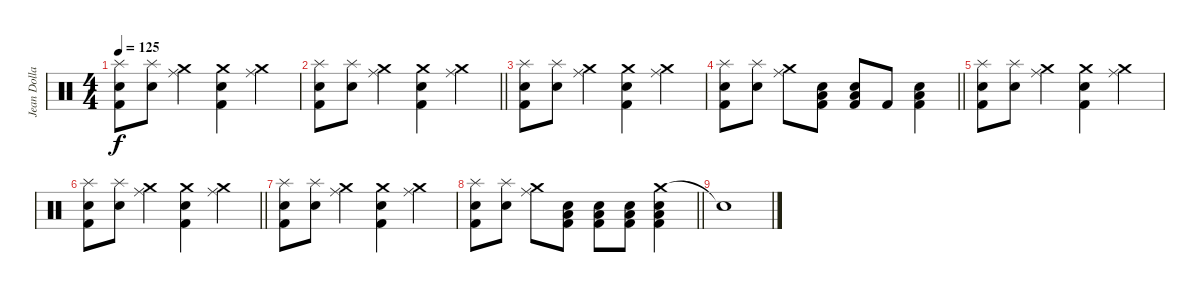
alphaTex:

\track ("Jean Dollabella" "Jean Dolla") {instrument percussion}
\staff {score}
\articulation defaults
\ts (4 4)
\tempo 125
\clef neutral
\ks c
("Splash (hit)" "Snare (hit) 2" "Kick (hit) 2").8{dy f} ("Splash (hit)" "Snare (hit) 2").8 ("Crash medium (hit)" "Ride (middle)").4 ("Crash medium (hit)" "Snare (hit) 2" "Kick (hit) 2").4 ("Crash medium (hit)" "Ride (middle)").4 |
\barLineRight lightlight
("Splash (hit)" "Snare (hit) 2" "Kick (hit) 2").8 ("Splash (hit)" "Snare (hit) 2").8 ("Crash medium (hit)" "Ride (middle)").4 ("Crash medium (hit)" "Snare (hit) 2" "Kick (hit) 2").4 ("Crash medium (hit)" "Ride (middle)").4 |
("Splash (hit)" "Snare (hit) 2" "Kick (hit) 2").8 ("Splash (hit)" "Snare (hit) 2").8 ("Crash medium (hit)" "Ride (middle)").4 ("Crash medium (hit)" "Snare (hit) 2" "Kick (hit) 2").4 ("Crash medium (hit)" "Ride (middle)").4 |
\barLineRight lightlight
("Splash (hit)" "Snare (hit) 2" "Kick (hit) 2").8 ("Splash (hit)" "Snare (hit) 2").8 ("Crash medium (hit)" "Ride (middle)").8 ("Low Floor Tom (hit)" "Snare (hit) 2" "Kick (hit) 2").8 ("Low Floor Tom (hit)" "Snare (hit) 2" "Kick (hit) 2").8 "Kick (hit) 2".8 ("Low Floor Tom (hit)" "Snare (hit) 2" "Kick (hit) 2").4 |
("Splash (hit)" "Snare (hit) 2" "Kick (hit) 2").8 ("Splash (hit)" "Snare (hit) 2").8 ("Crash medium (hit)" "Ride (middle)").4 ("Crash medium (hit)" "Snare (hit) 2" "Kick (hit) 2").4 ("Crash medium (hit)" "Ride (middle)").4 |
\barLineRight lightlight
("Splash (hit)" "Snare (hit) 2" "Kick (hit) 2").8 ("Splash (hit)" "Snare (hit) 2").8 ("Crash medium (hit)" "Ride (middle)").4 ("Crash medium (hit)" "Snare (hit) 2" "Kick (hit) 2").4 ("Crash medium (hit)" "Ride (middle)").4 |
("Splash (hit)" "Snare (hit) 2" "Kick (hit) 2").8 ("Splash (hit)" "Snare (hit) 2").8 ("Crash medium (hit)" "Ride (middle)").4 ("Crash medium (hit)" "Snare (hit) 2" "Kick (hit) 2").4 ("Crash medium (hit)" "Ride (middle)").4 |
\barLineRight lightlight
("Splash (hit)" "Snare (hit) 2" "Kick (hit) 2").8 ("Splash (hit)" "Snare (hit) 2").8 ("Crash medium (hit)" "Ride (middle)").8 ("Snare (hit) 2" "Low Floor Tom (hit)" "Kick (hit) 2").8 ("Snare (hit) 2" "Low Floor Tom (hit)" "Kick (hit) 2").8 ("Snare (hit) 2" "Low Floor Tom (hit)" "Kick (hit) 2").8 ("Crash medium (hit)" "Snare (hit) 2" "Low Floor Tom (hit)" "Kick (hit) 2").4 |
"Snare (hit)"{t}.1
